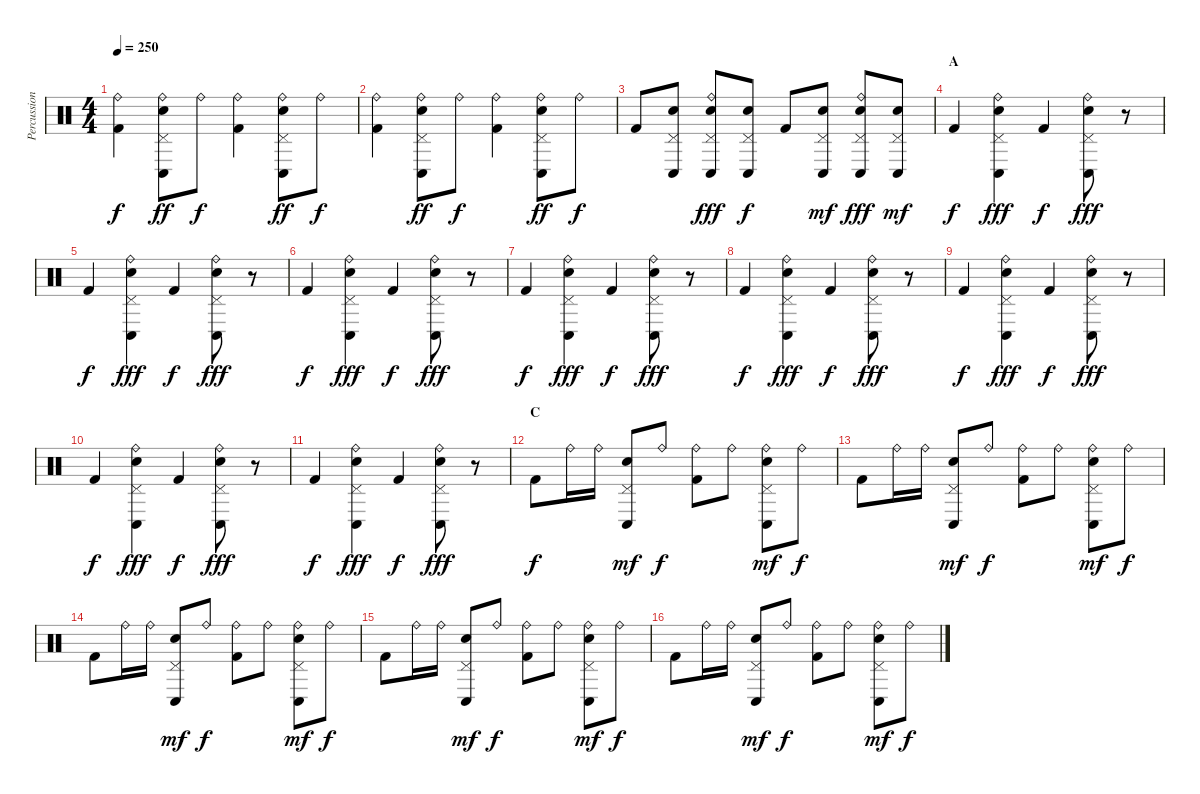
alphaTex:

\track ("Percussion" "Percussion") {instrument percussion}
\staff {score}
\articulation defaults
\ts (4 4)
\tempo 250
\clef neutral
\ks c
("Ride (bell)" "Kick (hit) 2").4{dy f} ("Ride (bell)" "Pedal Hi-Hat (hit)" "Conga low (hit)" "Electric Snare (hit)").8{dy ff} "Ride (bell)".8{dy f} ("Ride (bell)" "Kick (hit) 2").4 ("Ride (bell)" "Pedal Hi-Hat (hit)" "Conga low (hit)" "Electric Snare (hit)").8{dy ff} "Ride (bell)".8{dy f} |
("Ride (bell)" "Kick (hit) 2").4 ("Ride (bell)" "Pedal Hi-Hat (hit)" "Conga low (hit)" "Electric Snare (hit)").8{dy ff} "Ride (bell)".8{dy f} ("Ride (bell)" "Kick (hit) 2").4 ("Ride (bell)" "Pedal Hi-Hat (hit)" "Conga low (hit)" "Electric Snare (hit)").8{dy ff} "Ride (bell)".8{dy f} |
"Kick (hit) 2".8 ("Pedal Hi-Hat (hit)" "Conga low (hit)" "Electric Snare (hit)").8 ("Ride (bell)" "Pedal Hi-Hat (hit)" "Conga low (hit)" "Electric Snare (hit)").8{dy fff} ("Pedal Hi-Hat (hit)" "Conga low (hit)" "Electric Snare (hit)").8{dy f} "Kick (hit) 2".8 ("Pedal Hi-Hat (hit)" "Conga low (hit)" "Electric Snare (hit)").8{dy mf} ("Ride (bell)" "Pedal Hi-Hat (hit)" "Conga low (hit)" "Electric Snare (hit)").8{dy fff} ("Pedal Hi-Hat (hit)" "Conga low (hit)" "Electric Snare (hit)").8{dy mf} |
\section ("" "A")
"Kick (hit) 2".4{dy f} ("Ride (bell)" "Pedal Hi-Hat (hit)" "Conga low (hit)" "Electric Snare (hit)").4{dy fff} "Kick (hit) 2".4{dy f} ("Ride (bell)" "Pedal Hi-Hat (hit)" "Conga low (hit)" "Electric Snare (hit)").8{dy fff} r.8 |
"Kick (hit) 2".4{dy f} ("Ride (bell)" "Pedal Hi-Hat (hit)" "Conga low (hit)" "Electric Snare (hit)").4{dy fff} "Kick (hit) 2".4{dy f} ("Ride (bell)" "Pedal Hi-Hat (hit)" "Conga low (hit)" "Electric Snare (hit)").8{dy fff} r.8 |
"Kick (hit) 2".4{dy f} ("Ride (bell)" "Pedal Hi-Hat (hit)" "Conga low (hit)" "Electric Snare (hit)").4{dy fff} "Kick (hit) 2".4{dy f} ("Ride (bell)" "Pedal Hi-Hat (hit)" "Conga low (hit)" "Electric Snare (hit)").8{dy fff} r.8 |
"Kick (hit) 2".4{dy f} ("Ride (bell)" "Pedal Hi-Hat (hit)" "Conga low (hit)" "Electric Snare (hit)").4{dy fff} "Kick (hit) 2".4{dy f} ("Ride (bell)" "Pedal Hi-Hat (hit)" "Conga low (hit)" "Electric Snare (hit)").8{dy fff} r.8 |
"Kick (hit) 2".4{dy f} ("Ride (bell)" "Pedal Hi-Hat (hit)" "Conga low (hit)" "Electric Snare (hit)").4{dy fff} "Kick (hit) 2".4{dy f} ("Ride (bell)" "Pedal Hi-Hat (hit)" "Conga low (hit)" "Electric Snare (hit)").8{dy fff} r.8 |
"Kick (hit) 2".4{dy f} ("Ride (bell)" "Pedal Hi-Hat (hit)" "Conga low (hit)" "Electric Snare (hit)").4{dy fff} "Kick (hit) 2".4{dy f} ("Ride (bell)" "Pedal Hi-Hat (hit)" "Conga low (hit)" "Electric Snare (hit)").8{dy fff} r.8 |
"Kick (hit) 2".4{dy f} ("Ride (bell)" "Pedal Hi-Hat (hit)" "Conga low (hit)" "Electric Snare (hit)").4{dy fff} "Kick (hit) 2".4{dy f} ("Ride (bell)" "Pedal Hi-Hat (hit)" "Conga low (hit)" "Electric Snare (hit)").8{dy fff} r.8 |
"Kick (hit) 2".4{dy f} ("Ride (bell)" "Pedal Hi-Hat (hit)" "Conga low (hit)" "Electric Snare (hit)").4{dy fff} "Kick (hit) 2".4{dy f} ("Ride (bell)" "Pedal Hi-Hat (hit)" "Conga low (hit)" "Electric Snare (hit)").8{dy fff} r.8 |
\section ("" "C")
"Kick (hit) 2".8{dy f} "Ride (bell)".16 "Ride (bell)".16 ("Pedal Hi-Hat (hit)" "Conga low (hit)" "Electric Snare (hit)").8{dy mf} "Ride (bell)".8{dy f} ("Ride (bell)" "Kick (hit) 2").8 "Ride (bell)".8 ("Ride (bell)" "Pedal Hi-Hat (hit)" "Conga low (hit)" "Electric Snare (hit)").8{dy mf} "Ride (bell)".8{dy f} |
"Kick (hit) 2".8 "Ride (bell)".16 "Ride (bell)".16 ("Pedal Hi-Hat (hit)" "Conga low (hit)" "Electric Snare (hit)").8{dy mf} "Ride (bell)".8{dy f} ("Ride (bell)" "Kick (hit) 2").8 "Ride (bell)".8 ("Ride (bell)" "Pedal Hi-Hat (hit)" "Conga low (hit)" "Electric Snare (hit)").8{dy mf} "Ride (bell)".8{dy f} |
"Kick (hit) 2".8 "Ride (bell)".16 "Ride (bell)".16 ("Pedal Hi-Hat (hit)" "Conga low (hit)" "Electric Snare (hit)").8{dy mf} "Ride (bell)".8{dy f} ("Ride (bell)" "Kick (hit) 2").8 "Ride (bell)".8 ("Ride (bell)" "Pedal Hi-Hat (hit)" "Conga low (hit)" "Electric Snare (hit)").8{dy mf} "Ride (bell)".8{dy f} |
"Kick (hit) 2".8 "Ride (bell)".16 "Ride (bell)".16 ("Pedal Hi-Hat (hit)" "Conga low (hit)" "Electric Snare (hit)").8{dy mf} "Ride (bell)".8{dy f} ("Ride (bell)" "Kick (hit) 2").8 "Ride (bell)".8 ("Ride (bell)" "Pedal Hi-Hat (hit)" "Conga low (hit)" "Electric Snare (hit)").8{dy mf} "Ride (bell)".8{dy f} |
"Kick (hit) 2".8 "Ride (bell)".16 "Ride (bell)".16 ("Pedal Hi-Hat (hit)" "Conga low (hit)" "Electric Snare (hit)").8{dy mf} "Ride (bell)".8{dy f} ("Ride (bell)" "Kick (hit) 2").8 "Ride (bell)".8 ("Ride (bell)" "Pedal Hi-Hat (hit)" "Conga low (hit)" "Electric Snare (hit)").8{dy mf} "Ride (bell)".8{dy f}
